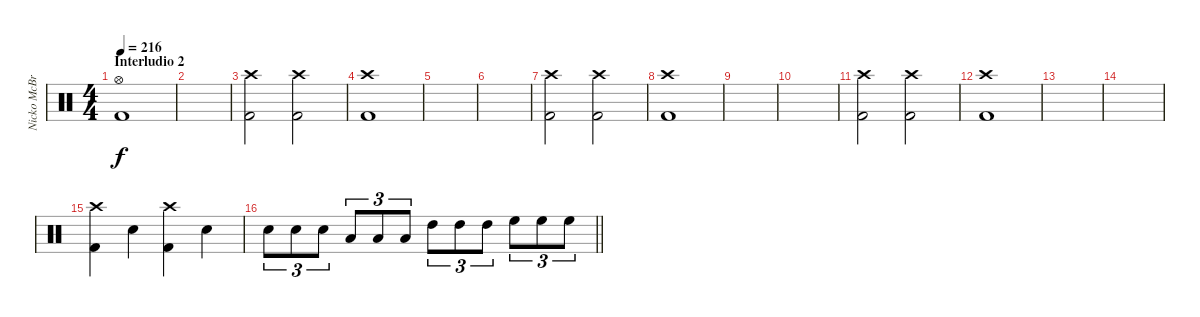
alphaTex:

\track ("Nicko McBrain" "Nicko McBr") {instrument percussion}
\staff {score}
\articulation defaults
\ts (4 4)
\section ("" "Interludio 2")
\tempo 216
\clef neutral
\ks c
("Hi-Hat (open)" "Kick (hit) 2").1{dy f} |
|
("Crash high (hit)" "Kick (hit) 2").2 ("Crash high (hit)" "Kick (hit) 2").2 |
("Crash high (hit)" "Kick (hit) 2").1 |
|
|
("Crash high (hit)" "Kick (hit) 2").2 ("Crash high (hit)" "Kick (hit) 2").2 |
("Crash high (hit)" "Kick (hit) 2").1 |
|
|
("Crash high (hit)" "Kick (hit) 2").2 ("Crash high (hit)" "Kick (hit) 2").2 |
("Crash high (hit)" "Kick (hit) 2").1 |
|
|
("Crash high (hit)" "Kick (hit) 2").4 "Snare (hit) 2".4 ("Crash high (hit)" "Kick (hit) 2").4 "Snare (hit) 2".4 |
\barLineRight lightlight "Snare (hit) 2".8{tu (3 2)} "Snare (hit) 2".8{tu (3 2)} "Snare (hit) 2".8{tu (3 2)} "Low Tom (hit)".8{tu (3 2)} "Low Tom (hit)".8{tu (3 2)} "Low Tom (hit)".8{tu (3 2)} "High Tom (hit)".8{tu (3 2)} "High Tom (hit)".8{tu (3 2)} "High Tom (hit)".8{tu (3 2)} "High Floor Tom (hit)".8{tu (3 2)} "High Floor Tom (hit)".8{tu (3 2)} "High Floor Tom (hit)".8{tu (3 2)}
